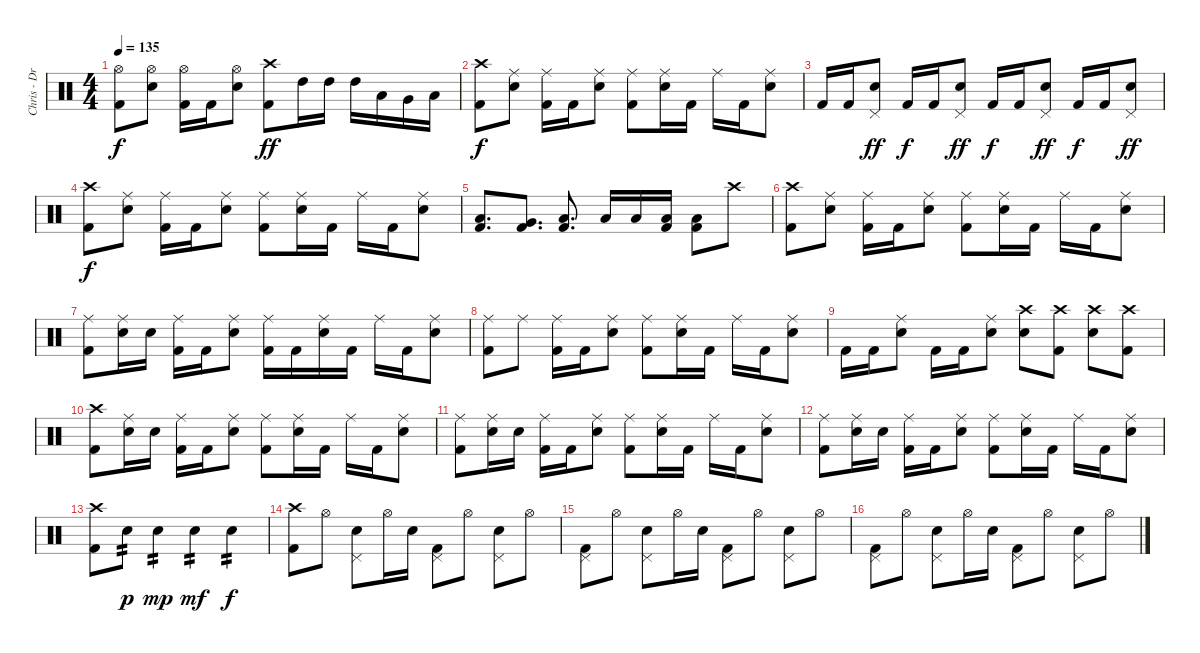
\track ("Chris - Drums" "Chris - Dr") {instrument percussion}
\staff {score}
\articulation defaults
\ts (4 4)
\tempo 135
\clef neutral
\ks c
("Hi-Hat (open)" "Kick (hit) 2").8{dy f} ("Hi-Hat (open)" "Electric Snare (hit)").8 ("Hi-Hat (open)" "Kick (hit) 2").16 "Kick (hit) 2".16 ("Hi-Hat (open)" "Electric Snare (hit)").8 ("Crash high (hit)" "Kick (hit) 2").8{dy ff} "High Tom (hit)".16 "High Tom (hit)".16 "High Tom (hit)".16 "Low Tom (hit)".16 "Very Low Tom (hit)".16 "Low Floor Tom (hit)".16 |
("Crash high (hit)" "Kick (hit) 2").8{dy f} ("Ride (middle)" "Electric Snare (hit)").8 ("Ride (middle)" "Kick (hit) 2").16 "Kick (hit) 2".16 ("Ride (middle)" "Electric Snare (hit)").8 ("Ride (middle)" "Kick (hit) 2").8 ("Ride (middle)" "Electric Snare (hit)").16 "Kick (hit) 2".16 "Ride (middle)".16 "Kick (hit) 2".16 ("Ride (middle)" "Electric Snare (hit)").8 |
"Kick (hit) 2".16 "Kick (hit) 2".16 ("Pedal Hi-Hat (hit)" "Electric Snare (hit)").8{dy ff} "Kick (hit) 2".16{dy f} "Kick (hit) 2".16 ("Pedal Hi-Hat (hit)" "Electric Snare (hit)").8{dy ff} "Kick (hit) 2".16{dy f} "Kick (hit) 2".16 ("Pedal Hi-Hat (hit)" "Electric Snare (hit)").8{dy ff} "Kick (hit) 2".16{dy f} "Kick (hit) 2".16 ("Pedal Hi-Hat (hit)" "Electric Snare (hit)").8{dy ff} |
("Crash high (hit)" "Kick (hit) 2").8{dy f} ("Ride (middle)" "Electric Snare (hit)").8 ("Ride (middle)" "Kick (hit) 2").16 "Kick (hit) 2".16 ("Ride (middle)" "Electric Snare (hit)").8 ("Ride (middle)" "Kick (hit) 2").8 ("Ride (middle)" "Electric Snare (hit)").16 "Kick (hit) 2".16 "Ride (middle)".16 "Kick (hit) 2".16 ("Ride (middle)" "Electric Snare (hit)").8 |
("Low Tom (hit)" "Kick (hit) 2").8{d} ("Very Low Tom (hit)" "Kick (hit) 2").8{d} ("Low Tom (hit)" "Kick (hit) 2").8{d} "Low Tom (hit)".16 "Low Floor Tom (hit)".16 ("Low Floor Tom (hit)" "Kick (hit) 2").16 ("Low Tom (hit)" "Kick (hit) 2").8 "Crash high (hit)".8 |
("Crash high (hit)" "Kick (hit) 2").8 ("Ride (middle)" "Electric Snare (hit)").8 ("Ride (middle)" "Kick (hit) 2").16 "Kick (hit) 2".16 ("Ride (middle)" "Electric Snare (hit)").8 ("Ride (middle)" "Kick (hit) 2").8 ("Ride (middle)" "Electric Snare (hit)").16 "Kick (hit) 2".16 "Ride (middle)".16 "Kick (hit) 2".16 ("Ride (middle)" "Electric Snare (hit)").8 |
("Ride (middle)" "Kick (hit) 2").8 ("Ride (middle)" "Electric Snare (hit)").16 "Electric Snare (hit)".16 ("Ride (middle)" "Kick (hit) 2").16 "Kick (hit) 2".16 ("Ride (middle)" "Electric Snare (hit)").8 ("Ride (middle)" "Kick (hit) 2").16 "Kick (hit) 2".16 ("Ride (middle)" "Electric Snare (hit)").16 "Kick (hit) 2".16 "Ride (middle)".16 "Kick (hit) 2".16 ("Ride (middle)" "Electric Snare (hit)").8 |
("Ride (middle)" "Kick (hit) 2").8 "Ride (middle)".8 ("Ride (middle)" "Kick (hit) 2").16 "Kick (hit) 2".16 ("Ride (middle)" "Electric Snare (hit)").8 ("Ride (middle)" "Kick (hit) 2").8 ("Ride (middle)" "Electric Snare (hit)").16 "Kick (hit) 2".16 "Ride (middle)".16 "Kick (hit) 2".16 ("Ride (middle)" "Electric Snare (hit)").8 |
"Kick (hit) 2".16 "Kick (hit) 2".16 ("Ride (middle)" "Electric Snare (hit)").8 "Kick (hit) 2".16 "Kick (hit) 2".16 ("Ride (middle)" "Electric Snare (hit)").8 ("Crash high (hit)" "Electric Snare (hit)").8 ("Crash high (hit)" "Kick (hit) 2").8 ("Crash high (hit)" "Electric Snare (hit)").8 ("Crash high (hit)" "Kick (hit) 2").8 |
("Crash high (hit)" "Kick (hit) 2").8 ("Ride (middle)" "Electric Snare (hit)").16 "Electric Snare (hit)".16 ("Ride (middle)" "Kick (hit) 2").16 "Kick (hit) 2".16 ("Ride (middle)" "Electric Snare (hit)").8 ("Ride (middle)" "Kick (hit) 2").8 ("Ride (middle)" "Electric Snare (hit)").16 "Kick (hit) 2".16 "Ride (middle)".16 "Kick (hit) 2".16 ("Ride (middle)" "Electric Snare (hit)").8 |
("Ride (middle)" "Kick (hit) 2").8 ("Ride (middle)" "Electric Snare (hit)").16 "Electric Snare (hit)".16 ("Ride (middle)" "Kick (hit) 2").16 "Kick (hit) 2".16 ("Ride (middle)" "Electric Snare (hit)").8 ("Ride (middle)" "Kick (hit) 2").8 ("Ride (middle)" "Electric Snare (hit)").16 "Kick (hit) 2".16 "Ride (middle)".16 "Kick (hit) 2".16 ("Ride (middle)" "Electric Snare (hit)").8 |
("Ride (middle)" "Kick (hit) 2").8 ("Ride (middle)" "Electric Snare (hit)").16 "Electric Snare (hit)".16 ("Ride (middle)" "Kick (hit) 2").16 "Kick (hit) 2".16 ("Ride (middle)" "Electric Snare (hit)").8 ("Ride (middle)" "Kick (hit) 2").8 ("Ride (middle)" "Electric Snare (hit)").16 "Kick (hit) 2".16 "Ride (middle)".16 "Kick (hit) 2".16 ("Ride (middle)" "Electric Snare (hit)").8 |
("Crash high (hit)" "Kick (hit) 2").8 "Electric Snare (hit)".8{tp 2 dy p} "Electric Snare (hit)".4{tp 2 dy mp} "Electric Snare (hit)".4{tp 2 dy mf} "Electric Snare (hit)".4{tp 2 dy f} |
("Crash high (hit)" "Kick (hit) 2").8 "Hi-Hat (open)".8 ("Pedal Hi-Hat (hit)" "Electric Snare (hit)").8 "Hi-Hat (open)".16 "Electric Snare (hit)".16 ("Pedal Hi-Hat (hit)" "Kick (hit) 2").8 "Hi-Hat (open)".8 ("Pedal Hi-Hat (hit)" "Electric Snare (hit)").8 "Hi-Hat (open)".8 |
("Pedal Hi-Hat (hit)" "Kick (hit) 2").8 "Hi-Hat (open)".8 ("Pedal Hi-Hat (hit)" "Electric Snare (hit)").8 "Hi-Hat (open)".16 "Electric Snare (hit)".16 ("Pedal Hi-Hat (hit)" "Kick (hit) 2").8 "Hi-Hat (open)".8 ("Pedal Hi-Hat (hit)" "Electric Snare (hit)").8 "Hi-Hat (open)".8 |
("Pedal Hi-Hat (hit)" "Kick (hit) 2").8 "Hi-Hat (open)".8 ("Pedal Hi-Hat (hit)" "Electric Snare (hit)").8 "Hi-Hat (open)".16 "Electric Snare (hit)".16 ("Pedal Hi-Hat (hit)" "Kick (hit) 2").8 "Hi-Hat (open)".8 ("Pedal Hi-Hat (hit)" "Electric Snare (hit)").8 "Hi-Hat (open)".8
